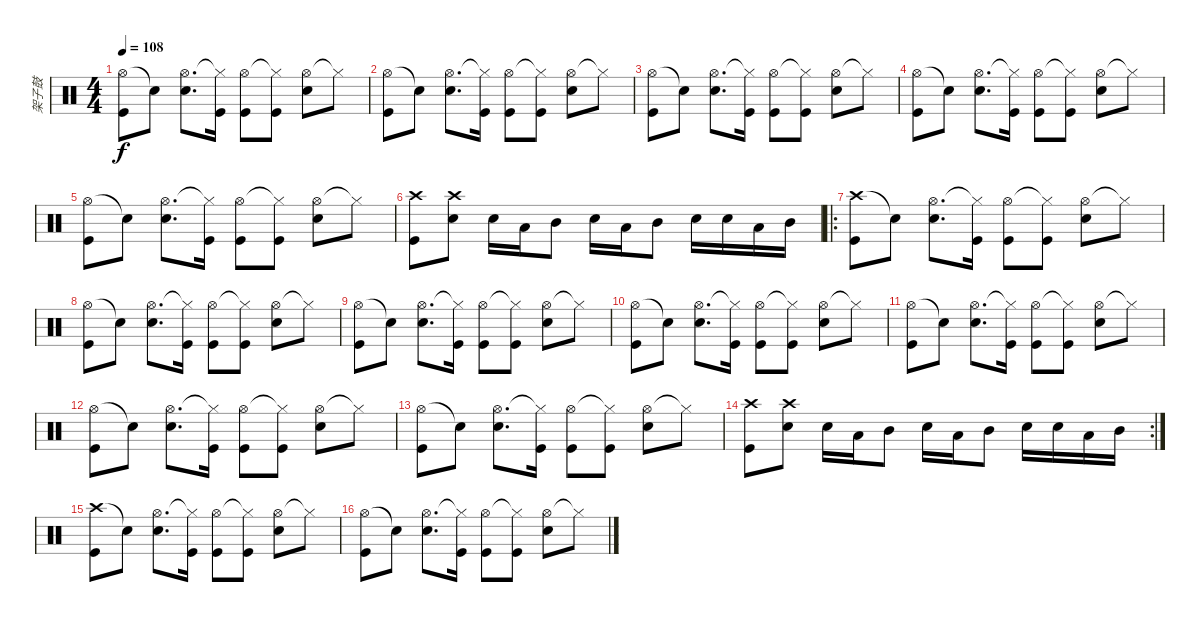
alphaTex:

\track ("架子鼓" "架子鼓") {instrument percussion}
\staff {score}
\articulation defaults
\ts (4 4)
\tempo 108
\clef neutral
\ks c
("Hi-Hat (open)" "Kick (hit)").8{dy f} "Snare (hit)"{t}.8 ("Hi-Hat (open)" "Snare (hit) 2").8{d} ("Hi-Hat (closed)"{t} "Kick (hit)").16 ("Hi-Hat (open)" "Kick (hit)").8 ("Hi-Hat (closed)"{t} "Kick (hit)").8 ("Hi-Hat (open)" "Snare (hit) 2").8 "Hi-Hat (closed)"{t}.8 |
("Hi-Hat (open)" "Kick (hit)").8 "Snare (hit)"{t}.8 ("Hi-Hat (open)" "Snare (hit) 2").8{d} ("Hi-Hat (closed)"{t} "Kick (hit)").16 ("Hi-Hat (open)" "Kick (hit)").8 ("Hi-Hat (closed)"{t} "Kick (hit)").8 ("Hi-Hat (open)" "Snare (hit) 2").8 "Hi-Hat (closed)"{t}.8 |
("Hi-Hat (open)" "Kick (hit)").8 "Snare (hit)"{t}.8 ("Hi-Hat (open)" "Snare (hit) 2").8{d} ("Hi-Hat (closed)"{t} "Kick (hit)").16 ("Hi-Hat (open)" "Kick (hit)").8 ("Hi-Hat (closed)"{t} "Kick (hit)").8 ("Hi-Hat (open)" "Snare (hit) 2").8 "Hi-Hat (closed)"{t}.8 |
("Hi-Hat (open)" "Kick (hit)").8 "Snare (hit)"{t}.8 ("Hi-Hat (open)" "Snare (hit) 2").8{d} ("Hi-Hat (closed)"{t} "Kick (hit)").16 ("Hi-Hat (open)" "Kick (hit)").8 ("Hi-Hat (closed)"{t} "Kick (hit)").8 ("Hi-Hat (open)" "Snare (hit) 2").8 "Hi-Hat (closed)"{t}.8 |
("Hi-Hat (open)" "Kick (hit)").8 "Snare (hit)"{t}.8 ("Hi-Hat (open)" "Snare (hit) 2").8{d} ("Hi-Hat (closed)"{t} "Kick (hit)").16 ("Hi-Hat (open)" "Kick (hit)").8 ("Hi-Hat (closed)"{t} "Kick (hit)").8 ("Hi-Hat (open)" "Snare (hit) 2").8 "Hi-Hat (closed)"{t}.8 |
("Crash high (hit)" "Kick (hit)").8 ("Crash high (hit)" "Snare (hit) 2").8 "Snare (hit) 2".16 "Low Tom (hit)".16 "Mid Tom (hit)".8 "Snare (hit) 2".16 "Low Tom (hit)".16 "Mid Tom (hit)".8 "Snare (hit) 2".16 "Snare (hit) 2".16 "Low Tom (hit)".16 "Mid Tom (hit)".16 |
\ro
("Crash high (hit)" "Kick (hit)").8 "Snare (hit)"{t}.8 ("Hi-Hat (open)" "Snare (hit) 2").8{d} ("Hi-Hat (closed)"{t} "Kick (hit)").16 ("Hi-Hat (open)" "Kick (hit)").8 ("Hi-Hat (closed)"{t} "Kick (hit)").8 ("Hi-Hat (open)" "Snare (hit) 2").8 "Hi-Hat (closed)"{t}.8 |
("Hi-Hat (open)" "Kick (hit)").8 "Snare (hit)"{t}.8 ("Hi-Hat (open)" "Snare (hit) 2").8{d} ("Hi-Hat (closed)"{t} "Kick (hit)").16 ("Hi-Hat (open)" "Kick (hit)").8 ("Hi-Hat (closed)"{t} "Kick (hit)").8 ("Hi-Hat (open)" "Snare (hit) 2").8 "Hi-Hat (closed)"{t}.8 |
("Hi-Hat (open)" "Kick (hit)").8 "Snare (hit)"{t}.8 ("Hi-Hat (open)" "Snare (hit) 2").8{d} ("Hi-Hat (closed)"{t} "Kick (hit)").16 ("Hi-Hat (open)" "Kick (hit)").8 ("Hi-Hat (closed)"{t} "Kick (hit)").8 ("Hi-Hat (open)" "Snare (hit) 2").8 "Hi-Hat (closed)"{t}.8 |
("Hi-Hat (open)" "Kick (hit)").8 "Snare (hit)"{t}.8 ("Hi-Hat (open)" "Snare (hit) 2").8{d} ("Hi-Hat (closed)"{t} "Kick (hit)").16 ("Hi-Hat (open)" "Kick (hit)").8 ("Hi-Hat (closed)"{t} "Kick (hit)").8 ("Hi-Hat (open)" "Snare (hit) 2").8 "Hi-Hat (closed)"{t}.8 |
("Hi-Hat (open)" "Kick (hit)").8 "Snare (hit)"{t}.8 ("Hi-Hat (open)" "Snare (hit) 2").8{d} ("Hi-Hat (closed)"{t} "Kick (hit)").16 ("Hi-Hat (open)" "Kick (hit)").8 ("Hi-Hat (closed)"{t} "Kick (hit)").8 ("Hi-Hat (open)" "Snare (hit) 2").8 "Hi-Hat (closed)"{t}.8 |
("Hi-Hat (open)" "Kick (hit)").8 "Snare (hit)"{t}.8 ("Hi-Hat (open)" "Snare (hit) 2").8{d} ("Hi-Hat (closed)"{t} "Kick (hit)").16 ("Hi-Hat (open)" "Kick (hit)").8 ("Hi-Hat (closed)"{t} "Kick (hit)").8 ("Hi-Hat (open)" "Snare (hit) 2").8 "Hi-Hat (closed)"{t}.8 |
("Hi-Hat (open)" "Kick (hit)").8 "Snare (hit)"{t}.8 ("Hi-Hat (open)" "Snare (hit) 2").8{d} ("Hi-Hat (closed)"{t} "Kick (hit)").16 ("Hi-Hat (open)" "Kick (hit)").8 ("Hi-Hat (closed)"{t} "Kick (hit)").8 ("Hi-Hat (open)" "Snare (hit) 2").8 "Hi-Hat (closed)"{t}.8 |
\rc 2
("Crash high (hit)" "Kick (hit)").8 ("Crash high (hit)" "Snare (hit) 2").8 "Snare (hit) 2".16 "Low Tom (hit)".16 "Mid Tom (hit)".8 "Snare (hit) 2".16 "Low Tom (hit)".16 "Mid Tom (hit)".8 "Snare (hit) 2".16 "Snare (hit) 2".16 "Low Tom (hit)".16 "Mid Tom (hit)".16 |
("Crash high (hit)" "Kick (hit)").8 "Snare (hit)"{t}.8 ("Hi-Hat (open)" "Snare (hit) 2").8{d} ("Hi-Hat (closed)"{t} "Kick (hit)").16 ("Hi-Hat (open)" "Kick (hit)").8 ("Hi-Hat (closed)"{t} "Kick (hit)").8 ("Hi-Hat (open)" "Snare (hit) 2").8 "Hi-Hat (closed)"{t}.8 |
("Hi-Hat (open)" "Kick (hit)").8 "Snare (hit)"{t}.8 ("Hi-Hat (open)" "Snare (hit) 2").8{d} ("Hi-Hat (closed)"{t} "Kick (hit)").16 ("Hi-Hat (open)" "Kick (hit)").8 ("Hi-Hat (closed)"{t} "Kick (hit)").8 ("Hi-Hat (open)" "Snare (hit) 2").8 "Hi-Hat (closed)"{t}.8
